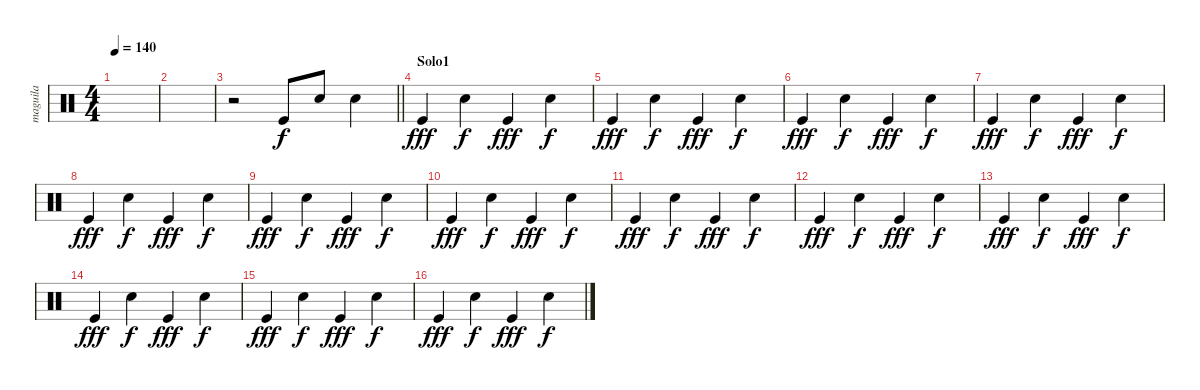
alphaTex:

\track ("maguila" "maguila") {instrument percussion}
\staff {score}
\articulation defaults
\ts (4 4)
\tempo 140
\clef neutral
\ks c
|
|
\barLineRight lightlight
r.2 "Kick (hit)".8 "Snare (hit) 2".8 "Snare (hit) 2".4 |
\section ("" "Solo1")
"Kick (hit)".4{dy fff} "Snare (hit) 2".4{dy f} "Kick (hit)".4{dy fff} "Snare (hit) 2".4{dy f} |
"Kick (hit)".4{dy fff} "Snare (hit) 2".4{dy f} "Kick (hit)".4{dy fff} "Snare (hit) 2".4{dy f} |
"Kick (hit)".4{dy fff} "Snare (hit) 2".4{dy f} "Kick (hit)".4{dy fff} "Snare (hit) 2".4{dy f} |
"Kick (hit)".4{dy fff} "Snare (hit) 2".4{dy f} "Kick (hit)".4{dy fff} "Snare (hit) 2".4{dy f} |
"Kick (hit)".4{dy fff} "Snare (hit) 2".4{dy f} "Kick (hit)".4{dy fff} "Snare (hit) 2".4{dy f} |
"Kick (hit)".4{dy fff} "Snare (hit) 2".4{dy f} "Kick (hit)".4{dy fff} "Snare (hit) 2".4{dy f} |
"Kick (hit)".4{dy fff} "Snare (hit) 2".4{dy f} "Kick (hit)".4{dy fff} "Snare (hit) 2".4{dy f} |
"Kick (hit)".4{dy fff} "Snare (hit) 2".4{dy f} "Kick (hit)".4{dy fff} "Snare (hit) 2".4{dy f} |
"Kick (hit)".4{dy fff} "Snare (hit) 2".4{dy f} "Kick (hit)".4{dy fff} "Snare (hit) 2".4{dy f} |
"Kick (hit)".4{dy fff} "Snare (hit) 2".4{dy f} "Kick (hit)".4{dy fff} "Snare (hit) 2".4{dy f} |
"Kick (hit)".4{dy fff} "Snare (hit) 2".4{dy f} "Kick (hit)".4{dy fff} "Snare (hit) 2".4{dy f} |
"Kick (hit)".4{dy fff} "Snare (hit) 2".4{dy f} "Kick (hit)".4{dy fff} "Snare (hit) 2".4{dy f} |
"Kick (hit)".4{dy fff} "Snare (hit) 2".4{dy f} "Kick (hit)".4{dy fff} "Snare (hit) 2".4{dy f}
